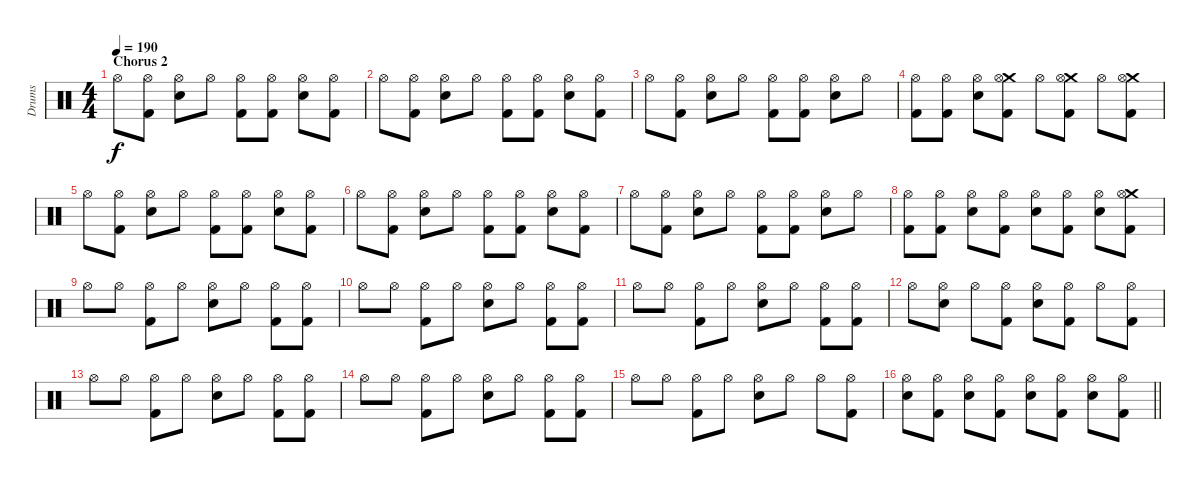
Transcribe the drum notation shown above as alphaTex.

\track ("Drums" "Drums") {instrument percussion}
\staff {score}
\articulation defaults
\ts (4 4)
\section ("" "Chorus 2")
\tempo 190
\clef neutral
\ks c "Hi-Hat (open)".8{dy f}
("Hi-Hat (open)" "Kick (hit) 2").8 ("Hi-Hat (open)" "Electric Snare (hit)").8 "Hi-Hat (open)".8 ("Hi-Hat (open)" "Kick (hit) 2").8 ("Hi-Hat (open)" "Kick (hit) 2").8 ("Hi-Hat (open)" "Electric Snare (hit)").8 ("Hi-Hat (open)" "Kick (hit) 2").8 |
"Hi-Hat (open)".8 ("Hi-Hat (open)" "Kick (hit) 2").8 ("Hi-Hat (open)" "Electric Snare (hit)").8 "Hi-Hat (open)".8 ("Hi-Hat (open)" "Kick (hit) 2").8 ("Hi-Hat (open)" "Kick (hit) 2").8 ("Hi-Hat (open)" "Electric Snare (hit)").8 ("Hi-Hat (open)" "Kick (hit) 2").8 |
"Hi-Hat (open)".8 ("Hi-Hat (open)" "Kick (hit) 2").8 ("Hi-Hat (open)" "Electric Snare (hit)").8 "Hi-Hat (open)".8 ("Hi-Hat (open)" "Kick (hit) 2").8 ("Hi-Hat (open)" "Kick (hit) 2").8 ("Hi-Hat (open)" "Electric Snare (hit)").8 "Hi-Hat (open)".8 |
("Hi-Hat (open)" "Kick (hit) 2").8 ("Hi-Hat (open)" "Kick (hit) 2").8 ("Hi-Hat (open)" "Electric Snare (hit)").8 ("Crash medium (hit)" "Hi-Hat (open)" "Kick (hit) 2").8 "Hi-Hat (open)".8 ("Crash medium (hit)" "Hi-Hat (open)" "Kick (hit) 2").8 "Hi-Hat (open)".8 ("Crash medium (hit)" "Hi-Hat (open)" "Kick (hit) 2").8 |
"Hi-Hat (open)".8 ("Hi-Hat (open)" "Kick (hit) 2").8 ("Hi-Hat (open)" "Electric Snare (hit)").8 "Hi-Hat (open)".8 ("Hi-Hat (open)" "Kick (hit) 2").8 ("Hi-Hat (open)" "Kick (hit) 2").8 ("Hi-Hat (open)" "Electric Snare (hit)").8 ("Hi-Hat (open)" "Kick (hit) 2").8 |
"Hi-Hat (open)".8 ("Hi-Hat (open)" "Kick (hit) 2").8 ("Hi-Hat (open)" "Electric Snare (hit)").8 "Hi-Hat (open)".8 ("Hi-Hat (open)" "Kick (hit) 2").8 ("Hi-Hat (open)" "Kick (hit) 2").8 ("Hi-Hat (open)" "Electric Snare (hit)").8 ("Hi-Hat (open)" "Kick (hit) 2").8 |
"Hi-Hat (open)".8 ("Hi-Hat (open)" "Kick (hit) 2").8 ("Hi-Hat (open)" "Electric Snare (hit)").8 "Hi-Hat (open)".8 ("Hi-Hat (open)" "Kick (hit) 2").8 ("Hi-Hat (open)" "Kick (hit) 2").8 ("Hi-Hat (open)" "Electric Snare (hit)").8 "Hi-Hat (open)".8 |
("Hi-Hat (open)" "Kick (hit) 2").8 ("Hi-Hat (open)" "Kick (hit) 2").8 ("Hi-Hat (open)" "Electric Snare (hit)").8 ("Hi-Hat (open)" "Kick (hit) 2").8 ("Hi-Hat (open)" "Electric Snare (hit)").8 ("Hi-Hat (open)" "Kick (hit) 2").8 ("Hi-Hat (open)" "Electric Snare (hit)").8 ("Crash medium (hit)" "Hi-Hat (open)" "Kick (hit) 2").8 |
"Hi-Hat (open)".8 "Hi-Hat (open)".8 ("Hi-Hat (open)" "Kick (hit) 2").8 "Hi-Hat (open)".8 ("Hi-Hat (open)" "Electric Snare (hit)").8 "Hi-Hat (open)".8 ("Hi-Hat (open)" "Kick (hit) 2").8 ("Hi-Hat (open)" "Kick (hit) 2").8 |
"Hi-Hat (open)".8 "Hi-Hat (open)".8 ("Hi-Hat (open)" "Kick (hit) 2").8 "Hi-Hat (open)".8 ("Hi-Hat (open)" "Electric Snare (hit)").8 "Hi-Hat (open)".8 ("Hi-Hat (open)" "Kick (hit) 2").8 ("Hi-Hat (open)" "Kick (hit) 2").8 |
"Hi-Hat (open)".8 "Hi-Hat (open)".8 ("Hi-Hat (open)" "Kick (hit) 2").8 "Hi-Hat (open)".8 ("Hi-Hat (open)" "Electric Snare (hit)").8 "Hi-Hat (open)".8 ("Hi-Hat (open)" "Kick (hit) 2").8 ("Hi-Hat (open)" "Kick (hit) 2").8 |
"Hi-Hat (open)".8 ("Hi-Hat (open)" "Electric Snare (hit)").8 "Hi-Hat (open)".8 ("Hi-Hat (open)" "Kick (hit) 2").8 ("Hi-Hat (open)" "Electric Snare (hit)").8 ("Hi-Hat (open)" "Kick (hit) 2").8 "Hi-Hat (open)".8 ("Hi-Hat (open)" "Kick (hit) 2").8 |
"Hi-Hat (open)".8 "Hi-Hat (open)".8 ("Hi-Hat (open)" "Kick (hit) 2").8 "Hi-Hat (open)".8 ("Hi-Hat (open)" "Electric Snare (hit)").8 "Hi-Hat (open)".8 ("Hi-Hat (open)" "Kick (hit) 2").8 ("Hi-Hat (open)" "Kick (hit) 2").8 |
"Hi-Hat (open)".8 "Hi-Hat (open)".8 ("Hi-Hat (open)" "Kick (hit) 2").8 "Hi-Hat (open)".8 ("Hi-Hat (open)" "Electric Snare (hit)").8 "Hi-Hat (open)".8 ("Hi-Hat (open)" "Kick (hit) 2").8 ("Hi-Hat (open)" "Kick (hit) 2").8 |
"Hi-Hat (open)".8 "Hi-Hat (open)".8 ("Hi-Hat (open)" "Kick (hit) 2").8 "Hi-Hat (open)".8 ("Hi-Hat (open)" "Electric Snare (hit)").8 "Hi-Hat (open)".8 "Hi-Hat (open)".8 ("Hi-Hat (open)" "Kick (hit) 2").8 |
\barLineRight lightlight
("Hi-Hat (open)" "Electric Snare (hit)").8 ("Hi-Hat (open)" "Kick (hit) 2").8 ("Hi-Hat (open)" "Electric Snare (hit)").8 ("Hi-Hat (open)" "Kick (hit) 2").8 ("Hi-Hat (open)" "Electric Snare (hit)").8 ("Hi-Hat (open)" "Kick (hit) 2").8 ("Hi-Hat (open)" "Electric Snare (hit)").8 ("Hi-Hat (open)" "Kick (hit) 2").8
